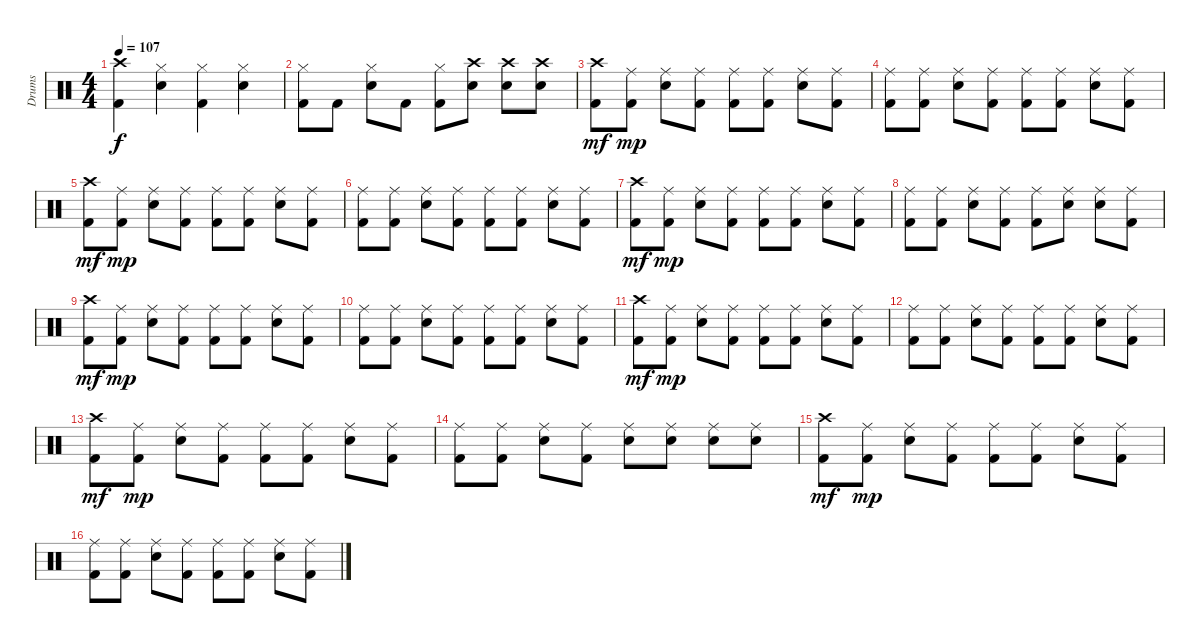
\track ("Drums" "Drums") {instrument percussion}
\staff {score}
\articulation defaults
\ts (4 4)
\tempo 107
\clef neutral
\ks c
("Kick (hit) 2" "Crash high (hit)").4{dy f} ("Hi-Hat (closed)" "Electric Snare (hit)").4 ("Kick (hit) 2" "Hi-Hat (closed)").4 ("Electric Snare (hit)" "Hi-Hat (closed)").4 |
("Hi-Hat (closed)" "Kick (hit) 2").8 "Kick (hit) 2".8 ("Hi-Hat (closed)" "Electric Snare (hit)").8 "Kick (hit) 2".8 ("Kick (hit) 2" "Hi-Hat (closed)").8 ("Electric Snare (hit)" "Crash high (hit)").8 ("Crash high (hit)" "Electric Snare (hit)").8 ("Crash high (hit)" "Electric Snare (hit)").8 |
("Crash high (hit)" "Kick (hit) 2").8{dy mf} ("Ride (middle)" "Kick (hit) 2").8{dy mp} ("Ride (middle)" "Electric Snare (hit)").8 ("Kick (hit) 2" "Ride (middle)").8 ("Kick (hit) 2" "Ride (middle)").8 ("Ride (middle)" "Kick (hit) 2").8 ("Ride (middle)" "Electric Snare (hit)").8 ("Ride (middle)" "Kick (hit) 2").8 |
("Kick (hit) 2" "Ride (middle)").8 ("Ride (middle)" "Kick (hit) 2").8 ("Electric Snare (hit)" "Ride (middle)").8 ("Ride (middle)" "Kick (hit) 2").8 ("Ride (middle)" "Kick (hit) 2").8 ("Kick (hit) 2" "Ride (middle)").8 ("Electric Snare (hit)" "Ride (middle)").8 ("Kick (hit) 2" "Ride (middle)").8 |
("Kick (hit) 2" "Crash high (hit)").8{dy mf} ("Kick (hit) 2" "Ride (middle)").8{dy mp} ("Electric Snare (hit)" "Ride (middle)").8 ("Kick (hit) 2" "Ride (middle)").8 ("Kick (hit) 2" "Ride (middle)").8 ("Kick (hit) 2" "Ride (middle)").8 ("Electric Snare (hit)" "Ride (middle)").8 ("Kick (hit) 2" "Ride (middle)").8 |
("Kick (hit) 2" "Ride (middle)").8 ("Kick (hit) 2" "Ride (middle)").8 ("Ride (middle)" "Electric Snare (hit)").8 ("Kick (hit) 2" "Ride (middle)").8 ("Kick (hit) 2" "Ride (middle)").8 ("Ride (middle)" "Kick (hit) 2").8 ("Electric Snare (hit)" "Ride (middle)").8 ("Kick (hit) 2" "Ride (middle)").8 |
("Crash high (hit)" "Kick (hit) 2").8{dy mf} ("Ride (middle)" "Kick (hit) 2").8{dy mp} ("Electric Snare (hit)" "Ride (middle)").8 ("Ride (middle)" "Kick (hit) 2").8 ("Kick (hit) 2" "Ride (middle)").8 ("Kick (hit) 2" "Ride (middle)").8 ("Ride (middle)" "Electric Snare (hit)").8 ("Kick (hit) 2" "Ride (middle)").8 |
("Kick (hit) 2" "Ride (middle)").8 ("Kick (hit) 2" "Ride (middle)").8 ("Electric Snare (hit)" "Ride (middle)").8 ("Kick (hit) 2" "Ride (middle)").8 ("Kick (hit) 2" "Ride (middle)").8 ("Ride (middle)" "Electric Snare (hit)").8 ("Electric Snare (hit)" "Ride (middle)").8 ("Kick (hit) 2" "Ride (middle)").8 |
("Kick (hit) 2" "Crash high (hit)").8{dy mf} ("Ride (middle)" "Kick (hit) 2").8{dy mp} ("Ride (middle)" "Electric Snare (hit)").8 ("Kick (hit) 2" "Ride (middle)").8 ("Ride (middle)" "Kick (hit) 2").8 ("Kick (hit) 2" "Ride (middle)").8 ("Ride (middle)" "Electric Snare (hit)").8 ("Ride (middle)" "Kick (hit) 2").8 |
("Kick (hit) 2" "Ride (middle)").8 ("Kick (hit) 2" "Ride (middle)").8 ("Ride (middle)" "Electric Snare (hit)").8 ("Ride (middle)" "Kick (hit) 2").8 ("Ride (middle)" "Kick (hit) 2").8 ("Ride (middle)" "Kick (hit) 2").8 ("Ride (middle)" "Electric Snare (hit)").8 ("Ride (middle)" "Kick (hit) 2").8 |
("Kick (hit) 2" "Crash high (hit)").8{dy mf} ("Kick (hit) 2" "Ride (middle)").8{dy mp} ("Electric Snare (hit)" "Ride (middle)").8 ("Ride (middle)" "Kick (hit) 2").8 ("Kick (hit) 2" "Ride (middle)").8 ("Ride (middle)" "Kick (hit) 2").8 ("Electric Snare (hit)" "Ride (middle)").8 ("Ride (middle)" "Kick (hit) 2").8 |
("Kick (hit) 2" "Ride (middle)").8 ("Kick (hit) 2" "Ride (middle)").8 ("Ride (middle)" "Electric Snare (hit)").8 ("Kick (hit) 2" "Ride (middle)").8 ("Kick (hit) 2" "Ride (middle)").8 ("Kick (hit) 2" "Ride (middle)").8 ("Electric Snare (hit)" "Ride (middle)").8 ("Ride (middle)" "Kick (hit) 2").8 |
("Kick (hit) 2" "Crash high (hit)").8{dy mf} ("Kick (hit) 2" "Ride (middle)").8{dy mp} ("Electric Snare (hit)" "Ride (middle)").8 ("Ride (middle)" "Kick (hit) 2").8 ("Ride (middle)" "Kick (hit) 2").8 ("Kick (hit) 2" "Ride (middle)").8 ("Electric Snare (hit)" "Ride (middle)").8 ("Ride (middle)" "Kick (hit) 2").8 |
("Kick (hit) 2" "Ride (middle)").8 ("Ride (middle)" "Kick (hit) 2").8 ("Electric Snare (hit)" "Ride (middle)").8 ("Kick (hit) 2" "Ride (middle)").8 ("Electric Snare (hit)" "Ride (middle)").8 ("Ride (middle)" "Electric Snare (hit)").8 ("Electric Snare (hit)" "Ride (middle)").8 ("Electric Snare (hit)" "Ride (middle)").8 |
("Crash high (hit)" "Kick (hit) 2").8{dy mf} ("Kick (hit) 2" "Ride (middle)").8{dy mp} ("Ride (middle)" "Electric Snare (hit)").8 ("Ride (middle)" "Kick (hit) 2").8 ("Ride (middle)" "Kick (hit) 2").8 ("Kick (hit) 2" "Ride (middle)").8 ("Ride (middle)" "Electric Snare (hit)").8 ("Ride (middle)" "Kick (hit) 2").8 |
("Kick (hit) 2" "Ride (middle)").8 ("Ride (middle)" "Kick (hit) 2").8 ("Ride (middle)" "Electric Snare (hit)").8 ("Ride (middle)" "Kick (hit) 2").8 ("Ride (middle)" "Kick (hit) 2").8 ("Ride (middle)" "Kick (hit) 2").8 ("Electric Snare (hit)" "Ride (middle)").8 ("Kick (hit) 2" "Ride (middle)").8
